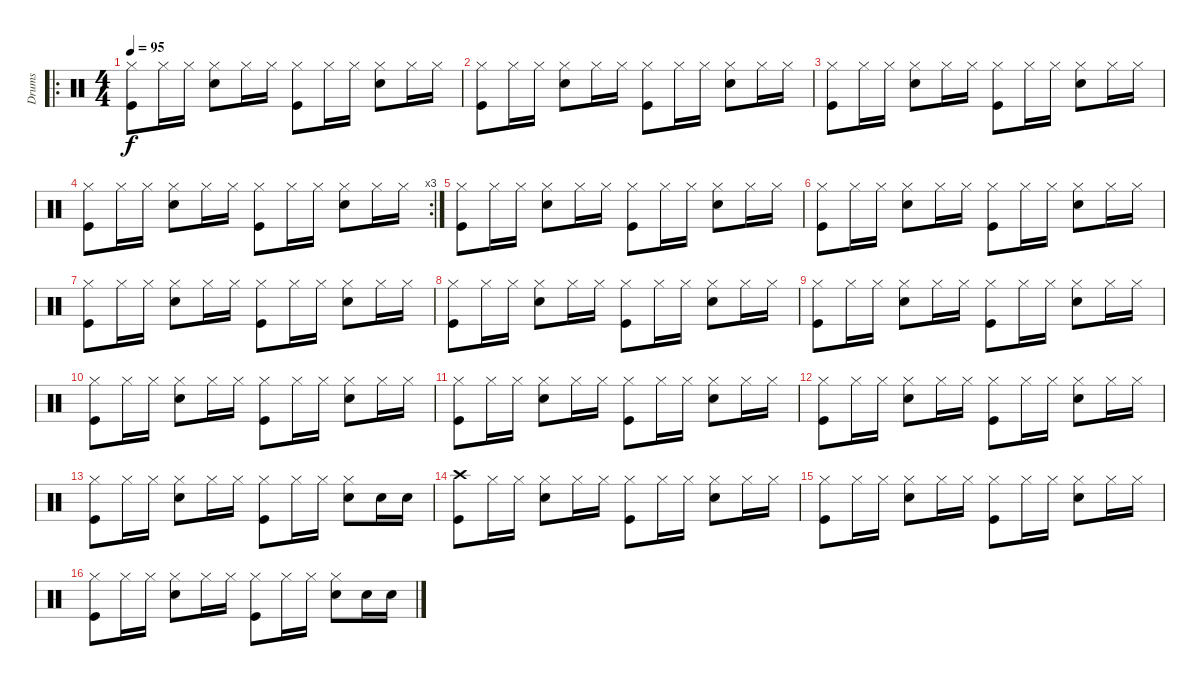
\track ("Drums" "Drums") {instrument percussion}
\staff {score}
\articulation defaults
\ro
\ts (4 4)
\tempo 95
\clef neutral
\ks c
("Hi-Hat (closed)" "Kick (hit)").8{dy f} "Hi-Hat (closed)".16 "Hi-Hat (closed)".16 ("Hi-Hat (closed)" "Snare (hit) 2").8 "Hi-Hat (closed)".16 "Hi-Hat (closed)".16 ("Hi-Hat (closed)" "Kick (hit)").8 "Hi-Hat (closed)".16 "Hi-Hat (closed)".16 ("Hi-Hat (closed)" "Snare (hit) 2").8 "Hi-Hat (closed)".16 "Hi-Hat (closed)".16 |
("Hi-Hat (closed)" "Kick (hit)").8 "Hi-Hat (closed)".16 "Hi-Hat (closed)".16 ("Hi-Hat (closed)" "Snare (hit) 2").8 "Hi-Hat (closed)".16 "Hi-Hat (closed)".16 ("Hi-Hat (closed)" "Kick (hit)").8 "Hi-Hat (closed)".16 "Hi-Hat (closed)".16 ("Hi-Hat (closed)" "Snare (hit) 2").8 "Hi-Hat (closed)".16 "Hi-Hat (closed)".16 |
("Hi-Hat (closed)" "Kick (hit)").8 "Hi-Hat (closed)".16 "Hi-Hat (closed)".16 ("Hi-Hat (closed)" "Snare (hit) 2").8 "Hi-Hat (closed)".16 "Hi-Hat (closed)".16 ("Hi-Hat (closed)" "Kick (hit)").8 "Hi-Hat (closed)".16 "Hi-Hat (closed)".16 ("Hi-Hat (closed)" "Snare (hit) 2").8 "Hi-Hat (closed)".16 "Hi-Hat (closed)".16 |
\rc 3
("Hi-Hat (closed)" "Kick (hit)").8 "Hi-Hat (closed)".16 "Hi-Hat (closed)".16 ("Hi-Hat (closed)" "Snare (hit) 2").8 "Hi-Hat (closed)".16 "Hi-Hat (closed)".16 ("Hi-Hat (closed)" "Kick (hit)").8 "Hi-Hat (closed)".16 "Hi-Hat (closed)".16 ("Hi-Hat (closed)" "Snare (hit) 2").8 "Hi-Hat (closed)".16 "Hi-Hat (closed)".16 |
("Hi-Hat (closed)" "Kick (hit)").8 "Hi-Hat (closed)".16 "Hi-Hat (closed)".16 ("Hi-Hat (closed)" "Snare (hit) 2").8 "Hi-Hat (closed)".16 "Hi-Hat (closed)".16 ("Hi-Hat (closed)" "Kick (hit)").8 "Hi-Hat (closed)".16 "Hi-Hat (closed)".16 ("Hi-Hat (closed)" "Snare (hit) 2").8 "Hi-Hat (closed)".16 "Hi-Hat (closed)".16 |
("Hi-Hat (closed)" "Kick (hit)").8 "Hi-Hat (closed)".16 "Hi-Hat (closed)".16 ("Hi-Hat (closed)" "Snare (hit) 2").8 "Hi-Hat (closed)".16 "Hi-Hat (closed)".16 ("Hi-Hat (closed)" "Kick (hit)").8 "Hi-Hat (closed)".16 "Hi-Hat (closed)".16 ("Hi-Hat (closed)" "Snare (hit) 2").8 "Hi-Hat (closed)".16 "Hi-Hat (closed)".16 |
("Hi-Hat (closed)" "Kick (hit)").8 "Hi-Hat (closed)".16 "Hi-Hat (closed)".16 ("Hi-Hat (closed)" "Snare (hit) 2").8 "Hi-Hat (closed)".16 "Hi-Hat (closed)".16 ("Hi-Hat (closed)" "Kick (hit)").8 "Hi-Hat (closed)".16 "Hi-Hat (closed)".16 ("Hi-Hat (closed)" "Snare (hit) 2").8 "Hi-Hat (closed)".16 "Hi-Hat (closed)".16 |
("Hi-Hat (closed)" "Kick (hit)").8 "Hi-Hat (closed)".16 "Hi-Hat (closed)".16 ("Hi-Hat (closed)" "Snare (hit) 2").8 "Hi-Hat (closed)".16 "Hi-Hat (closed)".16 ("Hi-Hat (closed)" "Kick (hit)").8 "Hi-Hat (closed)".16 "Hi-Hat (closed)".16 ("Hi-Hat (closed)" "Snare (hit) 2").8 "Hi-Hat (closed)".16 "Hi-Hat (closed)".16 |
("Hi-Hat (closed)" "Kick (hit)").8 "Hi-Hat (closed)".16 "Hi-Hat (closed)".16 ("Hi-Hat (closed)" "Snare (hit) 2").8 "Hi-Hat (closed)".16 "Hi-Hat (closed)".16 ("Hi-Hat (closed)" "Kick (hit)").8 "Hi-Hat (closed)".16 "Hi-Hat (closed)".16 ("Hi-Hat (closed)" "Snare (hit) 2").8 "Hi-Hat (closed)".16 "Hi-Hat (closed)".16 |
("Hi-Hat (closed)" "Kick (hit)").8 "Hi-Hat (closed)".16 "Hi-Hat (closed)".16 ("Hi-Hat (closed)" "Snare (hit) 2").8 "Hi-Hat (closed)".16 "Hi-Hat (closed)".16 ("Hi-Hat (closed)" "Kick (hit)").8 "Hi-Hat (closed)".16 "Hi-Hat (closed)".16 ("Hi-Hat (closed)" "Snare (hit) 2").8 "Hi-Hat (closed)".16 "Hi-Hat (closed)".16 |
("Hi-Hat (closed)" "Kick (hit)").8 "Hi-Hat (closed)".16 "Hi-Hat (closed)".16 ("Hi-Hat (closed)" "Snare (hit) 2").8 "Hi-Hat (closed)".16 "Hi-Hat (closed)".16 ("Hi-Hat (closed)" "Kick (hit)").8 "Hi-Hat (closed)".16 "Hi-Hat (closed)".16 ("Hi-Hat (closed)" "Snare (hit) 2").8 "Hi-Hat (closed)".16 "Hi-Hat (closed)".16 |
("Hi-Hat (closed)" "Kick (hit)").8 "Hi-Hat (closed)".16 "Hi-Hat (closed)".16 ("Hi-Hat (closed)" "Snare (hit) 2").8 "Hi-Hat (closed)".16 "Hi-Hat (closed)".16 ("Hi-Hat (closed)" "Kick (hit)").8 "Hi-Hat (closed)".16 "Hi-Hat (closed)".16 ("Hi-Hat (closed)" "Snare (hit) 2").8 "Hi-Hat (closed)".16 "Hi-Hat (closed)".16 |
("Hi-Hat (closed)" "Kick (hit)").8 "Hi-Hat (closed)".16 "Hi-Hat (closed)".16 ("Hi-Hat (closed)" "Snare (hit) 2").8 "Hi-Hat (closed)".16 "Hi-Hat (closed)".16 ("Hi-Hat (closed)" "Kick (hit)").8 "Hi-Hat (closed)".16 "Hi-Hat (closed)".16 ("Hi-Hat (closed)" "Snare (hit) 2").8 "Snare (hit) 2".16 "Snare (hit) 2".16 |
("Crash high (hit)" "Kick (hit)").8 "Hi-Hat (closed)".16 "Hi-Hat (closed)".16 ("Hi-Hat (closed)" "Snare (hit) 2").8 "Hi-Hat (closed)".16 "Hi-Hat (closed)".16 ("Hi-Hat (closed)" "Kick (hit)").8 "Hi-Hat (closed)".16 "Hi-Hat (closed)".16 ("Hi-Hat (closed)" "Snare (hit) 2").8 "Hi-Hat (closed)".16 "Hi-Hat (closed)".16 |
("Hi-Hat (closed)" "Kick (hit)").8 "Hi-Hat (closed)".16 "Hi-Hat (closed)".16 ("Hi-Hat (closed)" "Snare (hit) 2").8 "Hi-Hat (closed)".16 "Hi-Hat (closed)".16 ("Hi-Hat (closed)" "Kick (hit)").8 "Hi-Hat (closed)".16 "Hi-Hat (closed)".16 ("Hi-Hat (closed)" "Snare (hit) 2").8 "Hi-Hat (closed)".16 "Hi-Hat (closed)".16 |
("Hi-Hat (closed)" "Kick (hit)").8 "Hi-Hat (closed)".16 "Hi-Hat (closed)".16 ("Hi-Hat (closed)" "Snare (hit) 2").8 "Hi-Hat (closed)".16 "Hi-Hat (closed)".16 ("Hi-Hat (closed)" "Kick (hit)").8 "Hi-Hat (closed)".16 "Hi-Hat (closed)".16 ("Hi-Hat (closed)" "Snare (hit) 2").8 "Snare (hit) 2".16 "Snare (hit) 2".16
